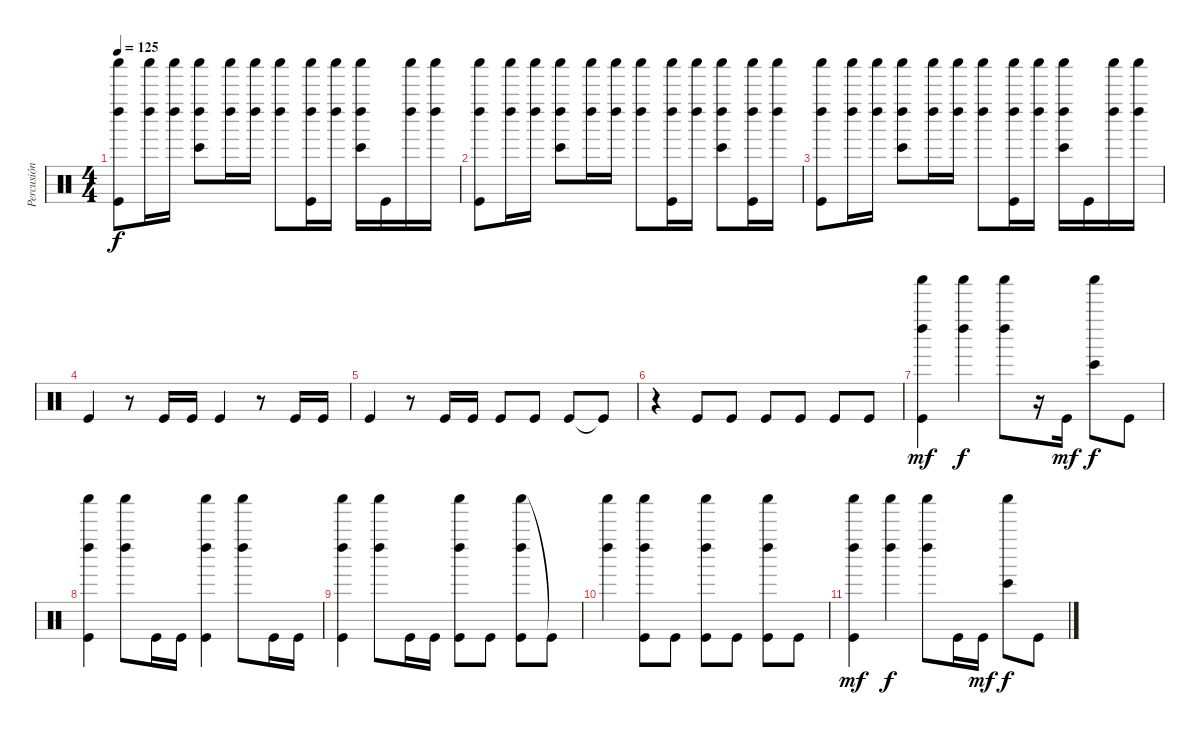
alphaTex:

\track ("Percusión" "Percusión") {instrument percussion}
\staff {score}
\articulation defaults
\ts (4 4)
\tempo 125
\clef neutral
\ks c
("Shaker (hit)" "Left Maraca (hit)" "Kick (hit)").8{dy f} ("Shaker (hit)" "Left Maraca (hit)").16 ("Shaker (hit)" "Left Maraca (hit)").16 ("Shaker (hit)" "Left Maraca (hit)" "Bongo High (hit)").8 ("Shaker (hit)" "Left Maraca (hit)").16 ("Shaker (hit)" "Left Maraca (hit)").16 ("Shaker (hit)" "Left Maraca (hit)").8 ("Shaker (hit)" "Left Maraca (hit)" "Kick (hit)").16 ("Shaker (hit)" "Left Maraca (hit)").16 ("Shaker (hit)" "Left Maraca (hit)" "Bongo High (hit)").16 "Kick (hit)".16 ("Shaker (hit)" "Left Maraca (hit)").16 ("Shaker (hit)" "Left Maraca (hit)").16 |
("Shaker (hit)" "Left Maraca (hit)" "Kick (hit)").8 ("Shaker (hit)" "Left Maraca (hit)").16 ("Shaker (hit)" "Left Maraca (hit)").16 ("Shaker (hit)" "Left Maraca (hit)" "Bongo High (hit)").8 ("Shaker (hit)" "Left Maraca (hit)").16 ("Shaker (hit)" "Left Maraca (hit)").16 ("Shaker (hit)" "Left Maraca (hit)").8 ("Shaker (hit)" "Left Maraca (hit)" "Kick (hit)").16 ("Shaker (hit)" "Left Maraca (hit)").16 ("Shaker (hit)" "Left Maraca (hit)" "Bongo High (hit)").8 ("Shaker (hit)" "Left Maraca (hit)" "Kick (hit)").16 ("Shaker (hit)" "Left Maraca (hit)").16 |
("Shaker (hit)" "Left Maraca (hit)" "Kick (hit)").8 ("Shaker (hit)" "Left Maraca (hit)").16 ("Shaker (hit)" "Left Maraca (hit)").16 ("Shaker (hit)" "Left Maraca (hit)" "Bongo High (hit)").8 ("Shaker (hit)" "Left Maraca (hit)").16 ("Shaker (hit)" "Left Maraca (hit)").16 ("Shaker (hit)" "Left Maraca (hit)").8 ("Shaker (hit)" "Left Maraca (hit)" "Kick (hit)").16 ("Shaker (hit)" "Left Maraca (hit)").16 ("Shaker (hit)" "Left Maraca (hit)" "Bongo High (hit)").16 "Kick (hit)".16 ("Shaker (hit)" "Left Maraca (hit)").16 ("Shaker (hit)" "Left Maraca (hit)").16 |
"Kick (hit)".4 r.8 "Kick (hit)".16 "Kick (hit)".16 "Kick (hit)".4 r.8 "Kick (hit)".16 "Kick (hit)".16 |
"Kick (hit)".4 r.8 "Kick (hit)".16 "Kick (hit)".16 "Kick (hit)".8 "Kick (hit)".8 "Kick (hit)".8 "Kick (hit)"{t}.8 |
r.4 "Kick (hit)".8 "Kick (hit)".8 "Kick (hit)".8 "Kick (hit)".8 "Kick (hit)".8 "Kick (hit)".8 |
("Shaker (hit)" "Left Maraca (hit)" "Kick (hit)").4{dy mf} ("Shaker (hit)" "Left Maraca (hit)").4{dy f} ("Shaker (hit)" "Left Maraca (hit)").8 r.16 "Kick (hit)".16{dy mf} ("Shaker (hit)" "Bongo High (hit)").8{dy f} "Kick (hit)".8 |
("Shaker (hit)" "Left Maraca (hit)" "Kick (hit)").4 ("Shaker (hit)" "Left Maraca (hit)").8 "Kick (hit)".16 "Kick (hit)".16 ("Shaker (hit)" "Left Maraca (hit)" "Kick (hit)").4 ("Shaker (hit)" "Left Maraca (hit)").8 "Kick (hit)".16 "Kick (hit)".16 |
("Shaker (hit)" "Left Maraca (hit)" "Kick (hit)").4 ("Shaker (hit)" "Left Maraca (hit)").8 "Kick (hit)".16 "Kick (hit)".16 ("Shaker (hit)" "Left Maraca (hit)" "Kick (hit)").8 "Kick (hit)".8 ("Shaker (hit)" "Left Maraca (hit)" "Kick (hit)").8 "Kick (hit)"{t}.8 |
("Shaker (hit)" "Left Maraca (hit)").4 ("Shaker (hit)" "Left Maraca (hit)" "Kick (hit)").8 "Kick (hit)".8 ("Shaker (hit)" "Left Maraca (hit)" "Kick (hit)").8 "Kick (hit)".8 ("Shaker (hit)" "Left Maraca (hit)" "Kick (hit)").8 "Kick (hit)".8 |
("Shaker (hit)" "Left Maraca (hit)" "Kick (hit)").4{dy mf} ("Shaker (hit)" "Left Maraca (hit)").4{dy f} ("Shaker (hit)" "Left Maraca (hit)").8 "Kick (hit)".16 "Kick (hit)".16{dy mf} ("Shaker (hit)" "Bongo High (hit)").8{dy f} "Kick (hit)".8
